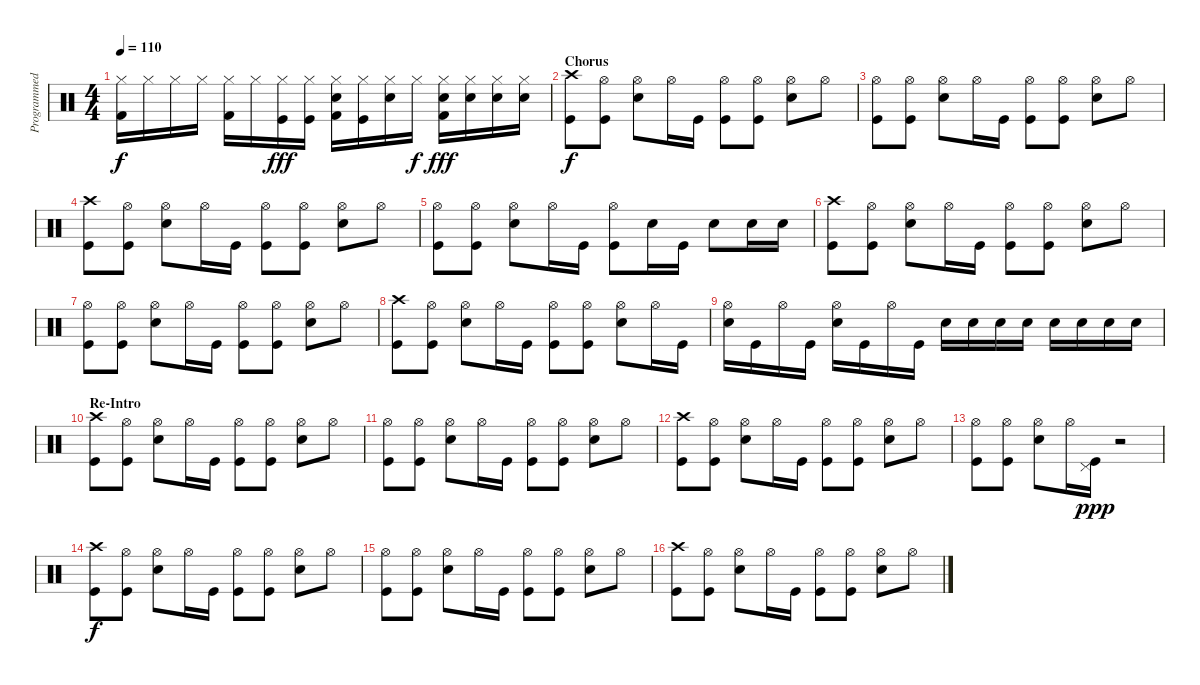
\track ("Programmed Drums" "Programmed") {instrument percussion}
\staff {score}
\articulation defaults
\ts (4 4)
\tempo 110
\clef neutral
\ks c
("Hi-Hat (closed)" "Kick (hit) 2").16{dy f} "Hi-Hat (closed)".16 "Hi-Hat (closed)".16 "Hi-Hat (closed)".16 ("Hi-Hat (closed)" "Kick (hit) 2").16 "Hi-Hat (closed)".16 ("Hi-Hat (closed)" "Kick (hit)").16{dy fff} ("Hi-Hat (closed)" "Kick (hit)").16 ("Hi-Hat (closed)" "Electric Snare (hit)" "Kick (hit) 2").16 ("Hi-Hat (closed)" "Kick (hit)").16 ("Hi-Hat (closed)" "Electric Snare (hit)").16 "Hi-Hat (closed)".16{dy f} ("Hi-Hat (closed)" "Electric Snare (hit)" "Kick (hit) 2").16{dy fff} ("Hi-Hat (closed)" "Electric Snare (hit)").16 ("Hi-Hat (closed)" "Electric Snare (hit)").16 ("Hi-Hat (closed)" "Electric Snare (hit)").16 |
\section ("" "Chorus")
("Crash high (hit)" "Kick (hit)").8{dy f volume 14} ("Hi-Hat (open)" "Kick (hit)").8 ("Hi-Hat (open)" "Electric Snare (hit)").8 "Hi-Hat (open)".16 "Kick (hit)".16 ("Hi-Hat (open)" "Kick (hit)").8 ("Hi-Hat (open)" "Kick (hit)").8 ("Hi-Hat (open)" "Electric Snare (hit)").8 "Hi-Hat (open)".8 |
("Hi-Hat (open)" "Kick (hit)").8 ("Hi-Hat (open)" "Kick (hit)").8 ("Hi-Hat (open)" "Electric Snare (hit)").8 "Hi-Hat (open)".16 "Kick (hit)".16 ("Hi-Hat (open)" "Kick (hit)").8 ("Hi-Hat (open)" "Kick (hit)").8 ("Hi-Hat (open)" "Electric Snare (hit)").8 "Hi-Hat (open)".8 |
("Crash high (hit)" "Kick (hit)").8 ("Hi-Hat (open)" "Kick (hit)").8 ("Hi-Hat (open)" "Electric Snare (hit)").8 "Hi-Hat (open)".16 "Kick (hit)".16 ("Hi-Hat (open)" "Kick (hit)").8 ("Hi-Hat (open)" "Kick (hit)").8 ("Hi-Hat (open)" "Electric Snare (hit)").8 "Hi-Hat (open)".8 |
("Hi-Hat (open)" "Kick (hit)").8 ("Hi-Hat (open)" "Kick (hit)").8 ("Hi-Hat (open)" "Electric Snare (hit)").8 "Hi-Hat (open)".16 "Kick (hit)".16 ("Hi-Hat (open)" "Kick (hit)").8 "Electric Snare (hit)".16 "Kick (hit)".16 "Electric Snare (hit)".8 "Electric Snare (hit)".16 "Electric Snare (hit)".16 |
("Crash high (hit)" "Kick (hit)").8{volume 14} ("Hi-Hat (open)" "Kick (hit)").8 ("Hi-Hat (open)" "Electric Snare (hit)").8 "Hi-Hat (open)".16 "Kick (hit)".16 ("Hi-Hat (open)" "Kick (hit)").8 ("Hi-Hat (open)" "Kick (hit)").8 ("Hi-Hat (open)" "Electric Snare (hit)").8 "Hi-Hat (open)".8 |
("Hi-Hat (open)" "Kick (hit)").8 ("Hi-Hat (open)" "Kick (hit)").8 ("Hi-Hat (open)" "Electric Snare (hit)").8 "Hi-Hat (open)".16 "Kick (hit)".16 ("Hi-Hat (open)" "Kick (hit)").8 ("Hi-Hat (open)" "Kick (hit)").8 ("Hi-Hat (open)" "Electric Snare (hit)").8 "Hi-Hat (open)".8 |
("Crash high (hit)" "Kick (hit)").8 ("Hi-Hat (open)" "Kick (hit)").8 ("Hi-Hat (open)" "Electric Snare (hit)").8 "Hi-Hat (open)".16 "Kick (hit)".16 ("Hi-Hat (open)" "Kick (hit)").8 ("Hi-Hat (open)" "Kick (hit)").8 ("Hi-Hat (open)" "Electric Snare (hit)").8 "Hi-Hat (open)".16 "Kick (hit)".16 |
("Hi-Hat (open)" "Electric Snare (hit)").16 "Kick (hit)".16 "Hi-Hat (open)".16 "Kick (hit)".16 ("Hi-Hat (open)" "Electric Snare (hit)").16 "Kick (hit)".16 "Hi-Hat (open)".16 "Kick (hit)".16 "Electric Snare (hit)".16 "Electric Snare (hit)".16 "Electric Snare (hit)".16 "Electric Snare (hit)".16 "Electric Snare (hit)".16 "Electric Snare (hit)".16 "Electric Snare (hit)".16 "Electric Snare (hit)".16 |
\section ("" "Re-Intro")
("Crash high (hit)" "Kick (hit)").8 ("Hi-Hat (open)" "Kick (hit)").8 ("Hi-Hat (open)" "Electric Snare (hit)").8 "Hi-Hat (open)".16 "Kick (hit)".16 ("Hi-Hat (open)" "Kick (hit)").8 ("Hi-Hat (open)" "Kick (hit)").8 ("Hi-Hat (open)" "Electric Snare (hit)").8 "Hi-Hat (open)".8 |
("Hi-Hat (open)" "Kick (hit)").8 ("Hi-Hat (open)" "Kick (hit)").8 ("Hi-Hat (open)" "Electric Snare (hit)").8 "Hi-Hat (open)".16 "Kick (hit)".16 ("Hi-Hat (open)" "Kick (hit)").8 ("Hi-Hat (open)" "Kick (hit)").8 ("Hi-Hat (open)" "Electric Snare (hit)").8 "Hi-Hat (open)".8 |
("Crash high (hit)" "Kick (hit)").8 ("Hi-Hat (open)" "Kick (hit)").8 ("Hi-Hat (open)" "Electric Snare (hit)").8 "Hi-Hat (open)".16 "Kick (hit)".16 ("Hi-Hat (open)" "Kick (hit)").8 ("Hi-Hat (open)" "Kick (hit)").8 ("Hi-Hat (open)" "Electric Snare (hit)").8 "Hi-Hat (open)".8 |
("Hi-Hat (open)" "Kick (hit)").8 ("Hi-Hat (open)" "Kick (hit)").8 ("Hi-Hat (open)" "Electric Snare (hit)").8 "Hi-Hat (open)".16 ("Pedal Hi-Hat (hit)" "Kick (hit)").16{dy ppp} r.2 |
("Crash high (hit)" "Kick (hit)").8{dy f} ("Hi-Hat (open)" "Kick (hit)").8 ("Hi-Hat (open)" "Electric Snare (hit)").8 "Hi-Hat (open)".16 "Kick (hit)".16 ("Hi-Hat (open)" "Kick (hit)").8 ("Hi-Hat (open)" "Kick (hit)").8 ("Hi-Hat (open)" "Electric Snare (hit)").8 "Hi-Hat (open)".8 |
("Hi-Hat (open)" "Kick (hit)").8 ("Hi-Hat (open)" "Kick (hit)").8 ("Hi-Hat (open)" "Electric Snare (hit)").8 "Hi-Hat (open)".16 "Kick (hit)".16 ("Hi-Hat (open)" "Kick (hit)").8 ("Hi-Hat (open)" "Kick (hit)").8 ("Hi-Hat (open)" "Electric Snare (hit)").8 "Hi-Hat (open)".8 |
("Crash high (hit)" "Kick (hit)").8 ("Hi-Hat (open)" "Kick (hit)").8 ("Hi-Hat (open)" "Electric Snare (hit)").8 "Hi-Hat (open)".16 "Kick (hit)".16 ("Hi-Hat (open)" "Kick (hit)").8 ("Hi-Hat (open)" "Kick (hit)").8 ("Hi-Hat (open)" "Electric Snare (hit)").8 "Hi-Hat (open)".8
